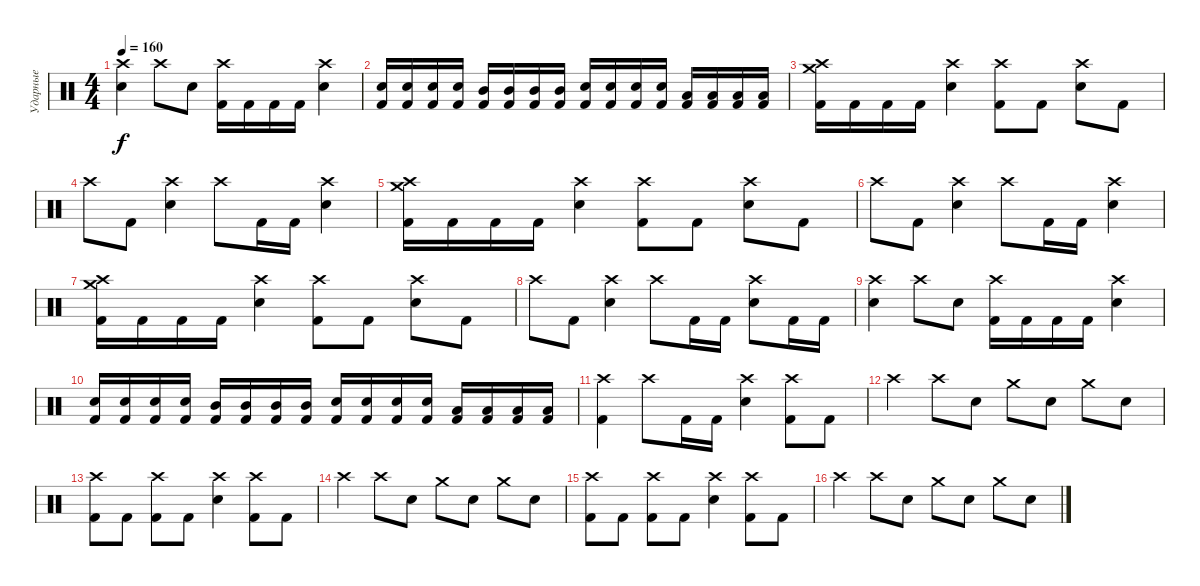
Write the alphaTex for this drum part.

\track ("Ударные" "Ударные") {instrument percussion}
\staff {score}
\articulation defaults
\ts (4 4)
\tempo 160
\clef neutral
\ks c
("Crash high (hit)" "Snare (hit) 2").4{dy f} "Crash high (hit)".8 "Snare (hit) 2".8 ("Crash high (hit)" "Kick (hit) 2").16 "Kick (hit) 2".16 "Kick (hit) 2".16 "Kick (hit) 2".16 ("Crash high (hit)" "Snare (hit) 2").4 |
("Snare (hit) 2" "Kick (hit) 2").16 ("Snare (hit) 2" "Kick (hit) 2").16 ("Snare (hit) 2" "Kick (hit) 2").16 ("Snare (hit) 2" "Kick (hit) 2").16 ("Mid Tom (hit)" "Kick (hit) 2").16 ("Mid Tom (hit)" "Kick (hit) 2").16 ("Mid Tom (hit)" "Kick (hit) 2").16 ("Mid Tom (hit)" "Kick (hit) 2").16 ("Snare (hit) 2" "Kick (hit) 2").16 ("Snare (hit) 2" "Kick (hit) 2").16 ("Snare (hit) 2" "Kick (hit) 2").16 ("Snare (hit) 2" "Kick (hit) 2").16 ("Low Tom (hit)" "Kick (hit) 2").16 ("Low Tom (hit)" "Kick (hit) 2").16 ("Low Tom (hit)" "Kick (hit) 2").16 ("Low Tom (hit)" "Kick (hit) 2").16 |
("Crash high (hit)" "Crash medium (hit)" "Kick (hit) 2").16 "Kick (hit) 2".16 "Kick (hit) 2".16 "Kick (hit) 2".16 ("Crash high (hit)" "Snare (hit) 2").4 ("Crash high (hit)" "Kick (hit) 2").8 "Kick (hit) 2".8 ("Crash high (hit)" "Snare (hit) 2").8 "Kick (hit) 2".8 |
"Crash high (hit)".8 "Kick (hit) 2".8 ("Crash high (hit)" "Snare (hit) 2").4 "Crash high (hit)".8 "Kick (hit) 2".16 "Kick (hit) 2".16 ("Crash high (hit)" "Snare (hit) 2").4 |
("Crash high (hit)" "Crash medium (hit)" "Kick (hit) 2").16 "Kick (hit) 2".16 "Kick (hit) 2".16 "Kick (hit) 2".16 ("Crash high (hit)" "Snare (hit) 2").4 ("Crash high (hit)" "Kick (hit) 2").8 "Kick (hit) 2".8 ("Crash high (hit)" "Snare (hit) 2").8 "Kick (hit) 2".8 |
"Crash high (hit)".8 "Kick (hit) 2".8 ("Crash high (hit)" "Snare (hit) 2").4 "Crash high (hit)".8 "Kick (hit) 2".16 "Kick (hit) 2".16 ("Crash high (hit)" "Snare (hit) 2").4 |
("Crash high (hit)" "Crash medium (hit)" "Kick (hit) 2").16 "Kick (hit) 2".16 "Kick (hit) 2".16 "Kick (hit) 2".16 ("Crash high (hit)" "Snare (hit) 2").4 ("Crash high (hit)" "Kick (hit) 2").8 "Kick (hit) 2".8 ("Crash high (hit)" "Snare (hit) 2").8 "Kick (hit) 2".8 |
"Crash high (hit)".8 "Kick (hit) 2".8 ("Crash high (hit)" "Snare (hit) 2").4 "Crash high (hit)".8 "Kick (hit) 2".16 "Kick (hit) 2".16 ("Crash high (hit)" "Snare (hit) 2").8 "Kick (hit) 2".16 "Kick (hit) 2".16 |
("Crash high (hit)" "Snare (hit) 2").4 "Crash high (hit)".8 "Snare (hit) 2".8 ("Crash high (hit)" "Kick (hit) 2").16 "Kick (hit) 2".16 "Kick (hit) 2".16 "Kick (hit) 2".16 ("Crash high (hit)" "Snare (hit) 2").4 |
("Snare (hit) 2" "Kick (hit) 2").16 ("Snare (hit) 2" "Kick (hit) 2").16 ("Snare (hit) 2" "Kick (hit) 2").16 ("Snare (hit) 2" "Kick (hit) 2").16 ("Mid Tom (hit)" "Kick (hit) 2").16 ("Mid Tom (hit)" "Kick (hit) 2").16 ("Mid Tom (hit)" "Kick (hit) 2").16 ("Mid Tom (hit)" "Kick (hit) 2").16 ("Snare (hit) 2" "Kick (hit) 2").16 ("Snare (hit) 2" "Kick (hit) 2").16 ("Snare (hit) 2" "Kick (hit) 2").16 ("Snare (hit) 2" "Kick (hit) 2").16 ("Low Tom (hit)" "Kick (hit) 2").16 ("Low Tom (hit)" "Kick (hit) 2").16 ("Low Tom (hit)" "Kick (hit) 2").16 ("Low Tom (hit)" "Kick (hit) 2").16 |
("Crash high (hit)" "Kick (hit) 2").4 "Crash high (hit)".8 "Kick (hit) 2".16 "Kick (hit) 2".16 ("Crash high (hit)" "Snare (hit) 2").4 ("Crash high (hit)" "Kick (hit) 2").8 "Kick (hit) 2".8 |
"Crash high (hit)".4 "Crash high (hit)".8 "Snare (hit) 2".8 "Crash medium (hit)".8 "Snare (hit) 2".8 "Crash medium (hit)".8 "Snare (hit) 2".8 |
("Crash high (hit)" "Kick (hit) 2").8 "Kick (hit) 2".8 ("Crash high (hit)" "Kick (hit) 2").8 "Kick (hit) 2".8 ("Crash high (hit)" "Snare (hit) 2").4 ("Crash high (hit)" "Kick (hit) 2").8 "Kick (hit) 2".8 |
"Crash high (hit)".4 "Crash high (hit)".8 "Snare (hit) 2".8 "Crash medium (hit)".8 "Snare (hit) 2".8 "Crash medium (hit)".8 "Snare (hit) 2".8 |
("Crash high (hit)" "Kick (hit) 2").8 "Kick (hit) 2".8 ("Crash high (hit)" "Kick (hit) 2").8 "Kick (hit) 2".8 ("Crash high (hit)" "Snare (hit) 2").4 ("Crash high (hit)" "Kick (hit) 2").8 "Kick (hit) 2".8 |
"Crash high (hit)".4 "Crash high (hit)".8 "Snare (hit) 2".8 "Crash medium (hit)".8 "Snare (hit) 2".8 "Crash medium (hit)".8 "Snare (hit) 2".8
